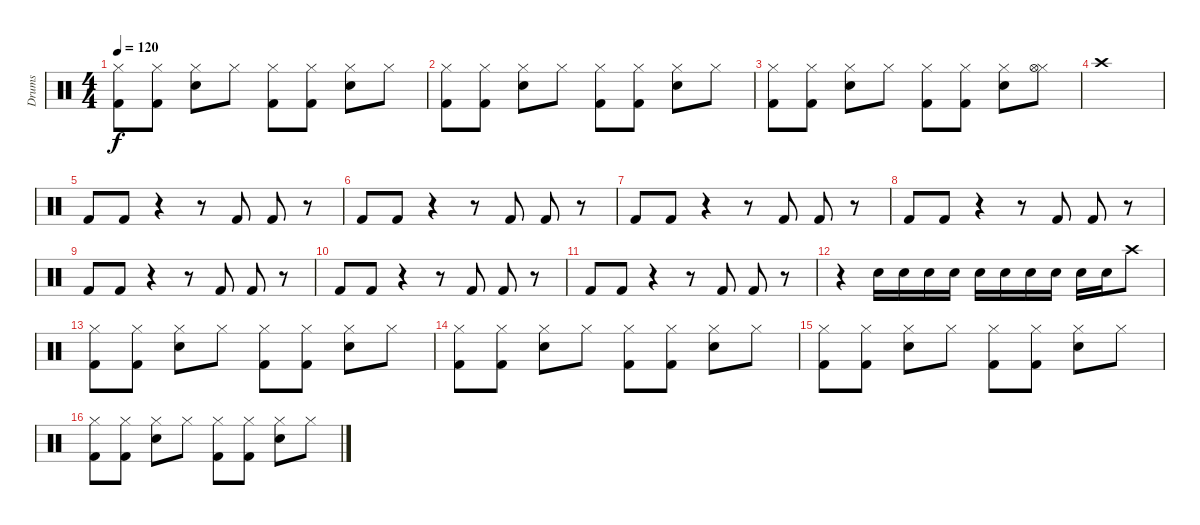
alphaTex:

\track ("Drums" "Drums") {instrument percussion}
\staff {score}
\articulation defaults
\ts (4 4)
\tempo 120
\clef neutral
\ks c
("Hi-Hat (closed)" "Kick (hit) 2").8{dy f} ("Hi-Hat (closed)" "Kick (hit) 2").8 ("Hi-Hat (closed)" "Snare (hit) 2").8 "Hi-Hat (closed)".8 ("Hi-Hat (closed)" "Kick (hit) 2").8 ("Hi-Hat (closed)" "Kick (hit) 2").8 ("Hi-Hat (closed)" "Snare (hit) 2").8 "Hi-Hat (closed)".8 |
("Hi-Hat (closed)" "Kick (hit) 2").8 ("Hi-Hat (closed)" "Kick (hit) 2").8 ("Hi-Hat (closed)" "Snare (hit) 2").8 "Hi-Hat (closed)".8 ("Hi-Hat (closed)" "Kick (hit) 2").8 ("Hi-Hat (closed)" "Kick (hit) 2").8 ("Hi-Hat (closed)" "Snare (hit) 2").8 "Hi-Hat (closed)".8 |
("Hi-Hat (closed)" "Kick (hit) 2").8 ("Hi-Hat (closed)" "Kick (hit) 2").8 ("Hi-Hat (closed)" "Snare (hit) 2").8 "Hi-Hat (closed)".8 ("Hi-Hat (closed)" "Kick (hit) 2").8 ("Hi-Hat (closed)" "Kick (hit) 2").8 ("Hi-Hat (closed)" "Snare (hit) 2").8 ("Hi-Hat (closed)" "Hi-Hat (open)").8 |
"Crash high (hit)".1 |
"Kick (hit) 2".8 "Kick (hit) 2".8 r.4 r.8 "Kick (hit) 2".8 "Kick (hit) 2".8 r.8 |
"Kick (hit) 2".8 "Kick (hit) 2".8 r.4 r.8 "Kick (hit) 2".8 "Kick (hit) 2".8 r.8 |
"Kick (hit) 2".8 "Kick (hit) 2".8 r.4 r.8 "Kick (hit) 2".8 "Kick (hit) 2".8 r.8 |
"Kick (hit) 2".8 "Kick (hit) 2".8 r.4 r.8 "Kick (hit) 2".8 "Kick (hit) 2".8 r.8 |
"Kick (hit) 2".8 "Kick (hit) 2".8 r.4 r.8 "Kick (hit) 2".8 "Kick (hit) 2".8 r.8 |
"Kick (hit) 2".8 "Kick (hit) 2".8 r.4 r.8 "Kick (hit) 2".8 "Kick (hit) 2".8 r.8 |
"Kick (hit) 2".8 "Kick (hit) 2".8 r.4 r.8 "Kick (hit) 2".8 "Kick (hit) 2".8 r.8 |
r.4 "Snare (hit) 2".16 "Snare (hit) 2".16 "Snare (hit) 2".16 "Snare (hit) 2".16 "Snare (hit) 2".16 "Snare (hit) 2".16 "Snare (hit) 2".16 "Snare (hit) 2".16 "Snare (hit) 2".16 "Snare (hit) 2".16 "Crash high (hit)".8 |
("Hi-Hat (closed)" "Kick (hit) 2").8 ("Hi-Hat (closed)" "Kick (hit) 2").8 ("Hi-Hat (closed)" "Snare (hit) 2").8 "Hi-Hat (closed)".8 ("Hi-Hat (closed)" "Kick (hit) 2").8 ("Hi-Hat (closed)" "Kick (hit) 2").8 ("Hi-Hat (closed)" "Snare (hit) 2").8 "Hi-Hat (closed)".8 |
("Hi-Hat (closed)" "Kick (hit) 2").8 ("Hi-Hat (closed)" "Kick (hit) 2").8 ("Hi-Hat (closed)" "Snare (hit) 2").8 "Hi-Hat (closed)".8 ("Hi-Hat (closed)" "Kick (hit) 2").8 ("Hi-Hat (closed)" "Kick (hit) 2").8 ("Hi-Hat (closed)" "Snare (hit) 2").8 "Hi-Hat (closed)".8 |
("Hi-Hat (closed)" "Kick (hit) 2").8 ("Hi-Hat (closed)" "Kick (hit) 2").8 ("Hi-Hat (closed)" "Snare (hit) 2").8 "Hi-Hat (closed)".8 ("Hi-Hat (closed)" "Kick (hit) 2").8 ("Hi-Hat (closed)" "Kick (hit) 2").8 ("Hi-Hat (closed)" "Snare (hit) 2").8 "Hi-Hat (closed)".8 |
("Hi-Hat (closed)" "Kick (hit) 2").8 ("Hi-Hat (closed)" "Kick (hit) 2").8 ("Hi-Hat (closed)" "Snare (hit) 2").8 "Hi-Hat (closed)".8 ("Hi-Hat (closed)" "Kick (hit) 2").8 ("Hi-Hat (closed)" "Kick (hit) 2").8 ("Hi-Hat (closed)" "Snare (hit) 2").8 "Hi-Hat (closed)".8
